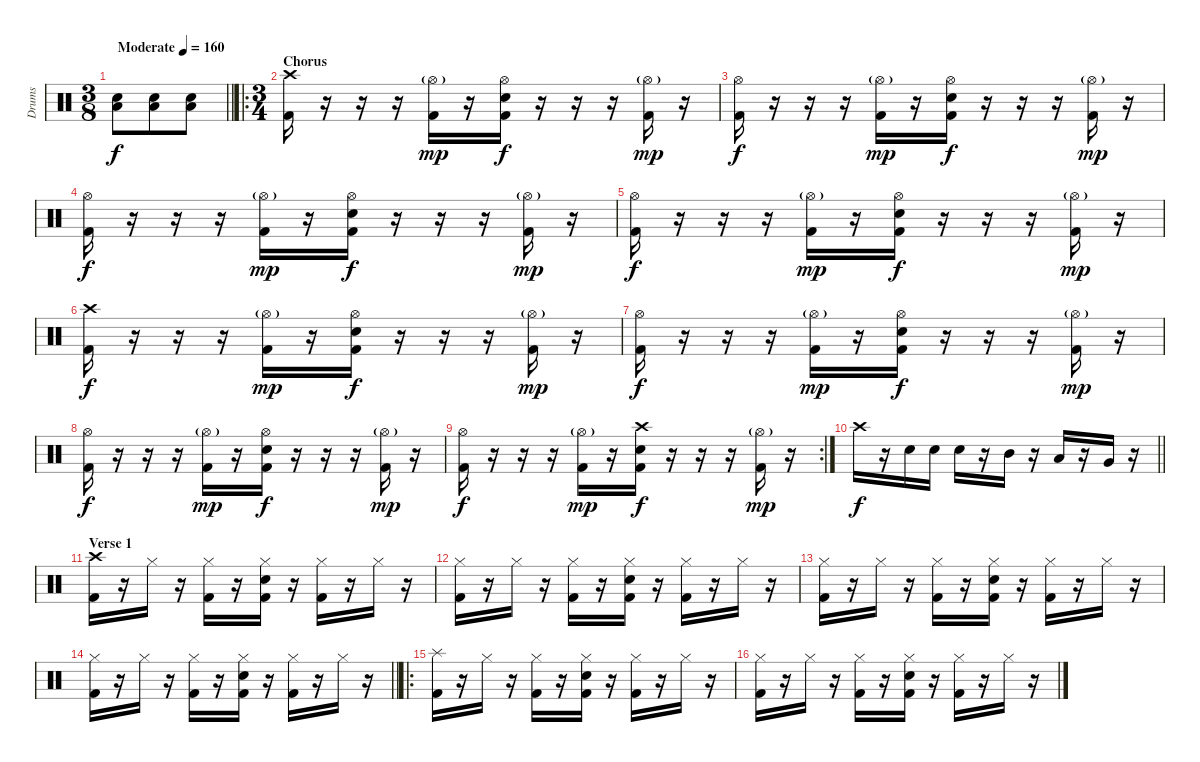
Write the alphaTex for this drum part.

\track ("Drums" "Drums") {instrument percussion}
\staff {score}
\articulation defaults
\ts (3 8)
\tempo (160 "Moderate")
\clef neutral
\barLineRight lightlight
\ks c
("Snare (hit) 2" "Low Floor Tom (hit)").8{dy f} ("Snare (hit) 2" "Low Floor Tom (hit)").8 ("Snare (hit) 2" "Low Floor Tom (hit)").8 |
\ro
\ts (3 4)
\section ("" "Chorus")
("Crash high (hit)" "Kick (hit) 2").16 r.16 r.16 r.16 ("Hi-Hat (open)"{g} "Kick (hit) 2").16{dy mp} r.16 ("Hi-Hat (open)" "Snare (hit) 2" "Kick (hit) 2").16{dy f} r.16 r.16 r.16 ("Hi-Hat (open)"{g} "Kick (hit) 2").16{dy mp} r.16 |
("Hi-Hat (open)" "Kick (hit) 2").16{dy f} r.16 r.16 r.16 ("Hi-Hat (open)"{g} "Kick (hit) 2").16{dy mp} r.16 ("Hi-Hat (open)" "Snare (hit) 2" "Kick (hit) 2").16{dy f} r.16 r.16 r.16 ("Hi-Hat (open)"{g} "Kick (hit) 2").16{dy mp} r.16 |
("Hi-Hat (open)" "Kick (hit) 2").16{dy f} r.16 r.16 r.16 ("Hi-Hat (open)"{g} "Kick (hit) 2").16{dy mp} r.16 ("Hi-Hat (open)" "Snare (hit) 2" "Kick (hit) 2").16{dy f} r.16 r.16 r.16 ("Hi-Hat (open)"{g} "Kick (hit) 2").16{dy mp} r.16 |
("Hi-Hat (open)" "Kick (hit) 2").16{dy f} r.16 r.16 r.16 ("Hi-Hat (open)"{g} "Kick (hit) 2").16{dy mp} r.16 ("Hi-Hat (open)" "Snare (hit) 2" "Kick (hit) 2").16{dy f} r.16 r.16 r.16 ("Hi-Hat (open)"{g} "Kick (hit) 2").16{dy mp} r.16 |
("Crash high (hit)" "Kick (hit) 2").16{dy f} r.16 r.16 r.16 ("Hi-Hat (open)"{g} "Kick (hit) 2").16{dy mp} r.16 ("Hi-Hat (open)" "Snare (hit) 2" "Kick (hit) 2").16{dy f} r.16 r.16 r.16 ("Hi-Hat (open)"{g} "Kick (hit) 2").16{dy mp} r.16 |
("Hi-Hat (open)" "Kick (hit) 2").16{dy f} r.16 r.16 r.16 ("Hi-Hat (open)"{g} "Kick (hit) 2").16{dy mp} r.16 ("Hi-Hat (open)" "Snare (hit) 2" "Kick (hit) 2").16{dy f} r.16 r.16 r.16 ("Hi-Hat (open)"{g} "Kick (hit) 2").16{dy mp} r.16 |
("Hi-Hat (open)" "Kick (hit) 2").16{dy f} r.16 r.16 r.16 ("Hi-Hat (open)"{g} "Kick (hit) 2").16{dy mp} r.16 ("Hi-Hat (open)" "Snare (hit) 2" "Kick (hit) 2").16{dy f} r.16 r.16 r.16 ("Hi-Hat (open)"{g} "Kick (hit) 2").16{dy mp} r.16 |
\rc 2
("Hi-Hat (open)" "Kick (hit) 2").16{dy f} r.16 r.16 r.16 ("Hi-Hat (open)"{g} "Kick (hit) 2").16{dy mp} r.16 ("Crash high (hit)" "Snare (hit) 2" "Kick (hit) 2").16{dy f} r.16 r.16 r.16 ("Hi-Hat (open)"{g} "Kick (hit) 2").16{dy mp} r.16 |
\barLineRight lightlight "Crash high (hit)".16{dy f}
r.16 "Snare (hit) 2".16 "Snare (hit) 2".16 "Snare (hit) 2".16 r.16 "Mid Tom (hit)".16 r.16 "Low Tom (hit)".16 r.16 "Very Low Tom (hit)".16 r.16 |
\section ("" "Verse 1")
("Crash high (hit)" "Kick (hit) 2").16 r.16 "Hi-Hat (closed)".16 r.16 ("Hi-Hat (closed)" "Kick (hit) 2").16 r.16 ("Hi-Hat (closed)" "Snare (hit) 2" "Kick (hit) 2").16 r.16 ("Hi-Hat (closed)" "Kick (hit) 2").16 r.16 "Hi-Hat (closed)".16 r.16 |
("Hi-Hat (closed)" "Kick (hit) 2").16 r.16 "Hi-Hat (closed)".16 r.16 ("Hi-Hat (closed)" "Kick (hit) 2").16 r.16 ("Hi-Hat (closed)" "Snare (hit) 2" "Kick (hit) 2").16 r.16 ("Hi-Hat (closed)" "Kick (hit) 2").16 r.16 "Hi-Hat (closed)".16 r.16 |
("Hi-Hat (closed)" "Kick (hit) 2").16 r.16 "Hi-Hat (closed)".16 r.16 ("Hi-Hat (closed)" "Kick (hit) 2").16 r.16 ("Hi-Hat (closed)" "Snare (hit) 2" "Kick (hit) 2").16 r.16 ("Hi-Hat (closed)" "Kick (hit) 2").16 r.16 "Hi-Hat (closed)".16 r.16 |
\barLineRight lightlight
("Hi-Hat (closed)" "Kick (hit) 2").16 r.16 "Hi-Hat (closed)".16 r.16 ("Hi-Hat (closed)" "Kick (hit) 2").16 r.16 ("Hi-Hat (closed)" "Snare (hit) 2" "Kick (hit) 2").16 r.16 ("Hi-Hat (closed)" "Kick (hit) 2").16 r.16 "Hi-Hat (closed)".16 r.16 |
\ro
\section ("" "")
("Splash (hit)" "Kick (hit) 2").16 r.16 "Hi-Hat (closed)".16 r.16 ("Hi-Hat (closed)" "Kick (hit) 2").16 r.16 ("Hi-Hat (closed)" "Snare (hit) 2" "Kick (hit) 2").16 r.16 ("Hi-Hat (closed)" "Kick (hit) 2").16 r.16 "Hi-Hat (closed)".16 r.16 |
("Hi-Hat (closed)" "Kick (hit) 2").16 r.16 "Hi-Hat (closed)".16 r.16 ("Hi-Hat (closed)" "Kick (hit) 2").16 r.16 ("Hi-Hat (closed)" "Snare (hit) 2" "Kick (hit) 2").16 r.16 ("Hi-Hat (closed)" "Kick (hit) 2").16 r.16 "Hi-Hat (closed)".16 r.16
